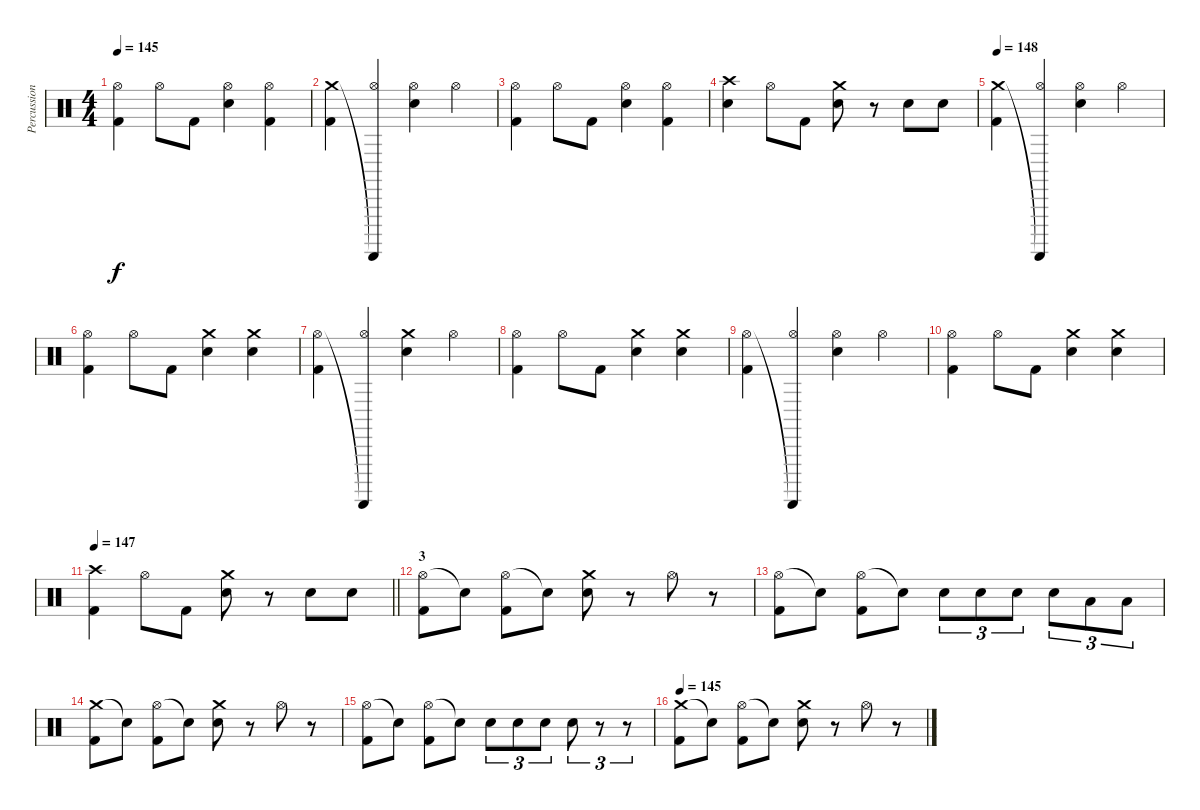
\track ("Percussion" "Percussion") {instrument percussion}
\staff {score}
\articulation defaults
\ts (4 4)
\tempo 145
\clef neutral
\ks c
("Hi-Hat (open)" "Kick (hit) 2").4{dy f} "Hi-Hat (open)".8 "Kick (hit) 2".8 ("Hi-Hat (open)" "Electric Snare (hit)").4 ("Hi-Hat (open)" "Kick (hit) 2").4 |
("Crash medium (hit)" "Kick (hit) 2").4 ("Guiro (scrap-return)"{t} "Hi-Hat (open)").4 ("Hi-Hat (open)" "Electric Snare (hit)").4 "Hi-Hat (open)".4 |
("Hi-Hat (open)" "Kick (hit) 2").4 "Hi-Hat (open)".8 "Kick (hit) 2".8 ("Hi-Hat (open)" "Electric Snare (hit)").4 ("Hi-Hat (open)" "Kick (hit) 2").4 |
("Crash high (hit)" "Electric Snare (hit)").4 "Hi-Hat (open)".8 "Kick (hit) 2".8 ("Crash medium (hit)" "Electric Snare (hit)").8 r.8 "Electric Snare (hit)".8 "Electric Snare (hit)".8 |
\tempo 148
("Crash medium (hit)" "Kick (hit) 2").4 ("Guiro (scrap-return)"{t} "Hi-Hat (open)").4 ("Hi-Hat (open)" "Electric Snare (hit)").4 "Hi-Hat (open)".4 |
("Hi-Hat (open)" "Kick (hit) 2").4 "Hi-Hat (open)".8 "Kick (hit) 2".8 ("Crash medium (hit)" "Electric Snare (hit)").4 ("Crash medium (hit)" "Electric Snare (hit)").4 |
("Hi-Hat (open)" "Kick (hit) 2").4 ("Guiro (scrap-return)"{t} "Hi-Hat (open)").4 ("Crash medium (hit)" "Electric Snare (hit)").4 "Hi-Hat (open)".4 |
("Hi-Hat (open)" "Kick (hit) 2").4 "Hi-Hat (open)".8 "Kick (hit) 2".8 ("Crash medium (hit)" "Electric Snare (hit)").4 ("Crash medium (hit)" "Electric Snare (hit)").4 |
("Hi-Hat (open)" "Kick (hit) 2").4 ("Guiro (scrap-return)"{t} "Hi-Hat (open)").4 ("Hi-Hat (open)" "Electric Snare (hit)").4 "Hi-Hat (open)".4 |
("Hi-Hat (open)" "Kick (hit) 2").4 "Hi-Hat (open)".8 "Kick (hit) 2".8 ("Crash medium (hit)" "Electric Snare (hit)").4 ("Crash medium (hit)" "Electric Snare (hit)").4 |
\tempo 147
\barLineRight lightlight
("Crash high (hit)" "Kick (hit) 2").4 "Hi-Hat (open)".8 "Kick (hit) 2".8 ("Crash medium (hit)" "Electric Snare (hit)").8 r.8 "Electric Snare (hit)".8 "Electric Snare (hit)".8 |
\section ("" "3")
("Hi-Hat (open)" "Kick (hit) 2").8 "Snare (hit)"{t}.8 ("Hi-Hat (open)" "Kick (hit) 2").8 "Snare (hit)"{t}.8 ("Crash medium (hit)" "Electric Snare (hit)").8 r.8 "Hi-Hat (open)".8 r.8 |
("Hi-Hat (open)" "Kick (hit) 2").8 "Snare (hit)"{t}.8 ("Hi-Hat (open)" "Kick (hit) 2").8 "Snare (hit)"{t}.8 "Electric Snare (hit)".8{tu (3 2)} "Electric Snare (hit)".8{tu (3 2)} "Electric Snare (hit)".8{tu (3 2)} "Electric Snare (hit)".8{tu (3 2)} "Low Tom (hit)".8{tu (3 2)} "Low Tom (hit)".8{tu (3 2)} |
("Crash medium (hit)" "Kick (hit) 2").8 "Snare (hit)"{t}.8 ("Hi-Hat (open)" "Kick (hit) 2").8 "Snare (hit)"{t}.8 ("Crash medium (hit)" "Electric Snare (hit)").8 r.8 "Hi-Hat (open)".8 r.8 |
("Hi-Hat (open)" "Kick (hit) 2").8 "Snare (hit)"{t}.8 ("Hi-Hat (open)" "Kick (hit) 2").8 "Snare (hit)"{t}.8 "Electric Snare (hit)".8{tu (3 2)} "Electric Snare (hit)".8{tu (3 2)} "Electric Snare (hit)".8{tu (3 2)} "Electric Snare (hit)".8{tu (3 2)} r.8{tu (3 2)} r.8{tu (3 2)} |
\tempo 145
("Crash medium (hit)" "Kick (hit) 2").8 "Snare (hit)"{t}.8 ("Hi-Hat (open)" "Kick (hit) 2").8 "Snare (hit)"{t}.8 ("Crash medium (hit)" "Electric Snare (hit)").8 r.8 "Hi-Hat (open)".8 r.8
